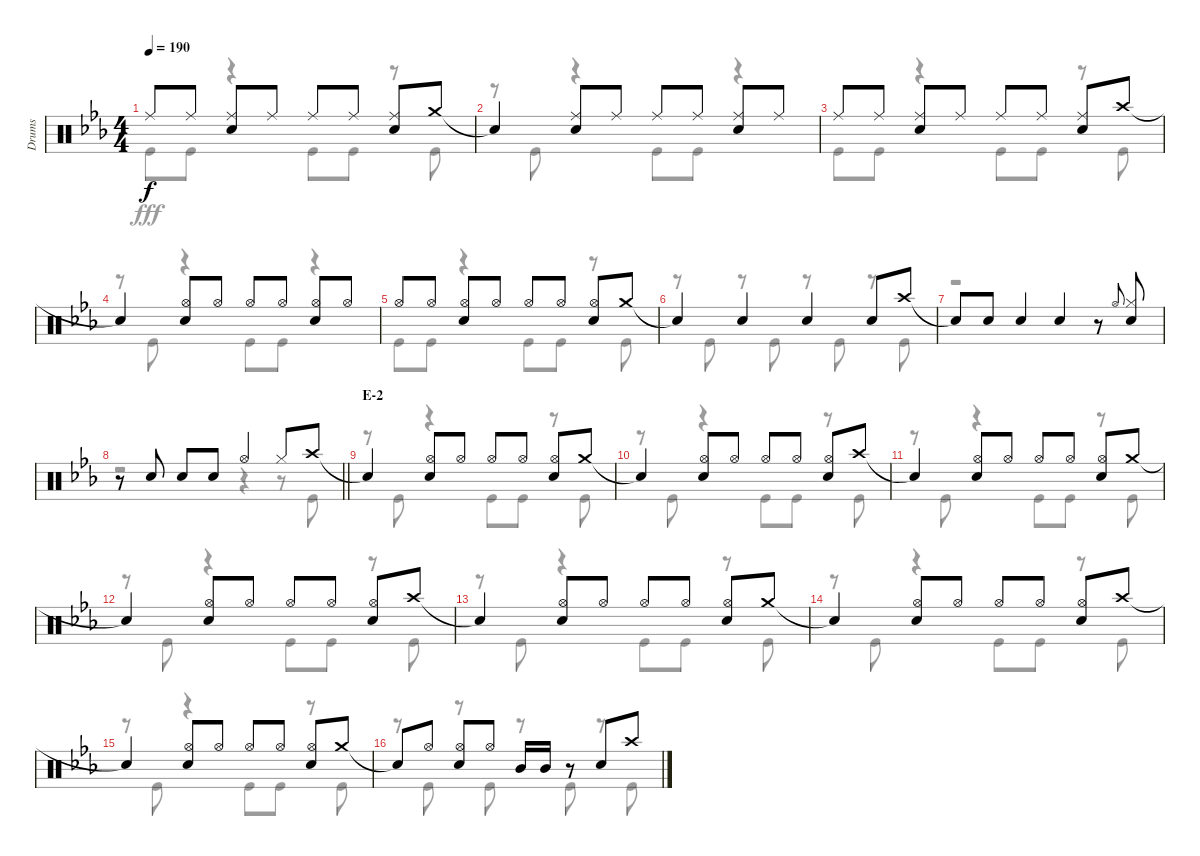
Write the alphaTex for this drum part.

\track ("Drums" "Drums") {instrument percussion}
\staff {score}
\articulation defaults
\voice
\ts (4 4)
\tempo 190
\clef neutral
\ks eb "Ride (middle)".8{dy f} "Ride (middle)".8
("Ride (middle)" "Snare (hit) 2").8 "Ride (middle)".8 "Ride (middle)".8 "Ride (middle)".8 ("Ride (middle)" "Snare (hit) 2").8 "Crash medium (hit)".8 |
"Snare (hit)"{t}.4 ("Ride (middle)" "Snare (hit) 2").8 "Ride (middle)".8 "Ride (middle)".8 "Ride (middle)".8 ("Ride (middle)" "Snare (hit) 2").8 "Ride (middle)".8 |
"Ride (middle)".8 "Ride (middle)".8 ("Ride (middle)" "Snare (hit) 2").8 "Ride (middle)".8 "Ride (middle)".8 "Ride (middle)".8 ("Ride (middle)" "Snare (hit) 2").8 "Crash high (hit)".8 |
"Snare (hit)"{t}.4 ("Hi-Hat (open)" "Snare (hit) 2").8 "Hi-Hat (open)".8 "Hi-Hat (open)".8 "Hi-Hat (open)".8 ("Hi-Hat (open)" "Snare (hit) 2").8 "Hi-Hat (open)".8 |
"Hi-Hat (open)".8 "Hi-Hat (open)".8 ("Hi-Hat (open)" "Snare (hit) 2").8 "Hi-Hat (open)".8 "Hi-Hat (open)".8 "Hi-Hat (open)".8 ("Hi-Hat (open)" "Snare (hit) 2").8 "Crash medium (hit)".8 |
"Snare (hit)"{t}.4 "Snare (hit) 2".4 "Snare (hit) 2".4 "Snare (hit) 2".8 "Crash high (hit)".8 |
"Snare (hit)"{t}.8 "Snare (hit) 2".8 "Snare (hit) 2".4 "Snare (hit) 2".4 r.8 "Hi-Hat (open)".8{gr onbeat} ("Hi-Hat (closed)" "Snare (hit) 2").8 |
\barLineRight lightlight
r.8 "Snare (hit) 2".8 "Snare (hit) 2".8 "Snare (hit) 2".8 "Hi-Hat (open)".4 "Hi-Hat (closed)".8 "Crash high (hit)".8 |
\section ("" "E-2")
"Snare (hit)"{t}.4 ("Hi-Hat (open)" "Snare (hit) 2").8 "Hi-Hat (open)".8 "Hi-Hat (open)".8 "Hi-Hat (open)".8 ("Hi-Hat (open)" "Snare (hit) 2").8 "Crash medium (hit)".8 |
"Snare (hit)"{t}.4 ("Hi-Hat (open)" "Snare (hit) 2").8 "Hi-Hat (open)".8 "Hi-Hat (open)".8 "Hi-Hat (open)".8 ("Hi-Hat (open)" "Snare (hit) 2").8 "Crash high (hit)".8 |
"Snare (hit)"{t}.4 ("Hi-Hat (open)" "Snare (hit) 2").8 "Hi-Hat (open)".8 "Hi-Hat (open)".8 "Hi-Hat (open)".8 ("Hi-Hat (open)" "Snare (hit) 2").8 "Crash medium (hit)".8 |
"Snare (hit)"{t}.4 ("Hi-Hat (open)" "Snare (hit) 2").8 "Hi-Hat (open)".8 "Hi-Hat (open)".8 "Hi-Hat (open)".8 ("Hi-Hat (open)" "Snare (hit) 2").8 "Crash high (hit)".8 |
"Snare (hit)"{t}.4 ("Hi-Hat (open)" "Snare (hit) 2").8 "Hi-Hat (open)".8 "Hi-Hat (open)".8 "Hi-Hat (open)".8 ("Hi-Hat (open)" "Snare (hit) 2").8 "Crash medium (hit)".8 |
"Snare (hit)"{t}.4 ("Hi-Hat (open)" "Snare (hit) 2").8 "Hi-Hat (open)".8 "Hi-Hat (open)".8 "Hi-Hat (open)".8 ("Hi-Hat (open)" "Snare (hit) 2").8 "Crash high (hit)".8 |
"Snare (hit)"{t}.4 ("Hi-Hat (open)" "Snare (hit) 2").8 "Hi-Hat (open)".8 "Hi-Hat (open)".8 "Hi-Hat (open)".8 ("Hi-Hat (open)" "Snare (hit) 2").8 "Crash medium (hit)".8 |
"Snare (hit)"{t}.8 "Hi-Hat (open)".8 ("Hi-Hat (open)" "Snare (hit) 2").8 "Hi-Hat (open)".8 "Mid Tom (hit)".16 "Mid Tom (hit)".16 r.8 "Snare (hit) 2".8 "Crash high (hit)".8
\voice
\clef neutral
\ottava regular
\simile none
\ks eb "Kick (hit)".8{dy fff} "Kick (hit)".8
r.4 "Kick (hit)".8 "Kick (hit)".8 r.8 "Kick (hit)".8 |
r.8 "Kick (hit)".8 r.4 "Kick (hit)".8 "Kick (hit)".8 r.4 |
"Kick (hit)".8 "Kick (hit)".8 r.4 "Kick (hit)".8 "Kick (hit)".8 r.8 "Kick (hit)".8 |
r.8 "Kick (hit)".8 r.4 "Kick (hit)".8 "Kick (hit)".8 r.4 |
"Kick (hit)".8 "Kick (hit)".8 r.4 "Kick (hit)".8 "Kick (hit)".8 r.8 "Kick (hit)".8 |
r.8 "Kick (hit)".8 r.8 "Kick (hit)".8 r.8 "Kick (hit)".8 r.8 "Kick (hit)".8 |
r.1 |
\barLineRight lightlight
r.2 r.4 r.8 "Kick (hit)".8 |
r.8 "Kick (hit)".8 r.4 "Kick (hit)".8 "Kick (hit)".8 r.8 "Kick (hit)".8 |
r.8 "Kick (hit)".8 r.4 "Kick (hit)".8 "Kick (hit)".8 r.8 "Kick (hit)".8 |
r.8 "Kick (hit)".8 r.4 "Kick (hit)".8 "Kick (hit)".8 r.8 "Kick (hit)".8 |
r.8 "Kick (hit)".8 r.4 "Kick (hit)".8 "Kick (hit)".8 r.8 "Kick (hit)".8 |
r.8 "Kick (hit)".8 r.4 "Kick (hit)".8 "Kick (hit)".8 r.8 "Kick (hit)".8 |
r.8 "Kick (hit)".8 r.4 "Kick (hit)".8 "Kick (hit)".8 r.8 "Kick (hit)".8 |
r.8 "Kick (hit)".8 r.4 "Kick (hit)".8 "Kick (hit)".8 r.8 "Kick (hit)".8 |
r.8 "Kick (hit)".8 r.8 "Kick (hit)".8 r.8 "Kick (hit)".8 r.8 "Kick (hit)".8
